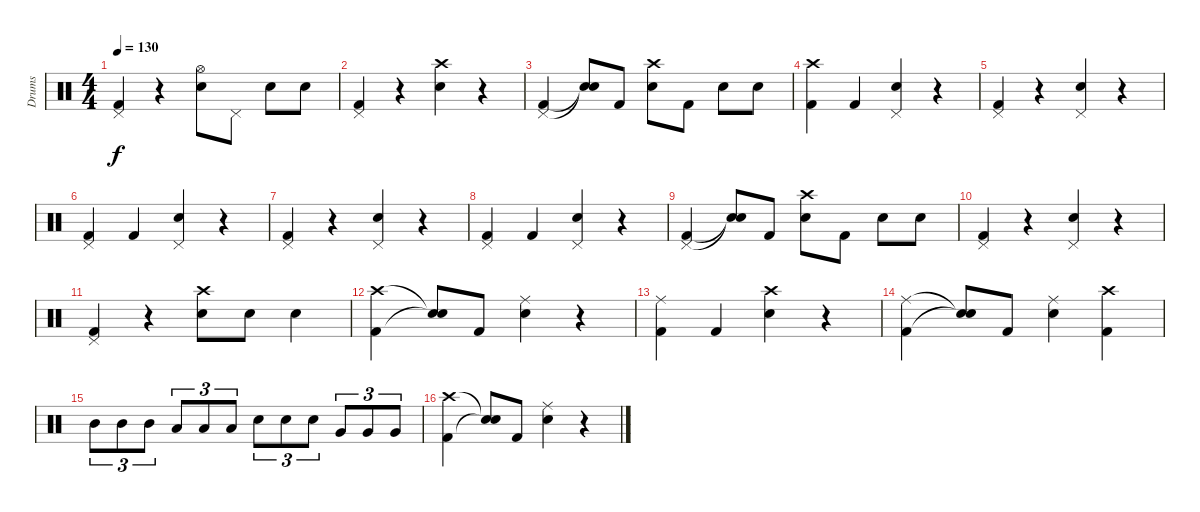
\track ("Drums" "Drums") {instrument percussion}
\staff {score}
\articulation defaults
\ts (4 4)
\tempo 130
\clef neutral
\ks c
("Pedal Hi-Hat (hit)" "Kick (hit) 2").4{dy f} r.4 ("Hi-Hat (open)" "Electric Snare (hit)").8 "Pedal Hi-Hat (hit)".8 "Electric Snare (hit)".8 "Electric Snare (hit)".8 |
("Pedal Hi-Hat (hit)" "Kick (hit) 2").4 r.4 ("Crash high (hit)" "Electric Snare (hit)").4 r.4 |
("Pedal Hi-Hat (hit)" "Kick (hit) 2").4 ("Snare (hit)"{t} "Snare (hit)"{t}).8 "Kick (hit) 2".8 ("Crash high (hit)" "Electric Snare (hit)").8 "Kick (hit) 2".8 "Electric Snare (hit)".8 "Electric Snare (hit)".8 |
("Crash high (hit)" "Kick (hit) 2").4 "Kick (hit) 2".4 ("Pedal Hi-Hat (hit)" "Electric Snare (hit)").4 r.4 |
("Pedal Hi-Hat (hit)" "Kick (hit) 2").4 r.4 ("Pedal Hi-Hat (hit)" "Electric Snare (hit)").4 r.4 |
("Pedal Hi-Hat (hit)" "Kick (hit) 2").4 "Kick (hit) 2".4 ("Pedal Hi-Hat (hit)" "Electric Snare (hit)").4 r.4 |
("Pedal Hi-Hat (hit)" "Kick (hit) 2").4 r.4 ("Pedal Hi-Hat (hit)" "Electric Snare (hit)").4 r.4 |
("Pedal Hi-Hat (hit)" "Kick (hit) 2").4 "Kick (hit) 2".4 ("Pedal Hi-Hat (hit)" "Electric Snare (hit)").4 r.4 |
("Pedal Hi-Hat (hit)" "Kick (hit) 2").4 ("Snare (hit)"{t} "Snare (hit)"{t}).8 "Kick (hit) 2".8 ("Crash high (hit)" "Electric Snare (hit)").8 "Kick (hit) 2".8 "Electric Snare (hit)".8 "Electric Snare (hit)".8 |
("Pedal Hi-Hat (hit)" "Kick (hit) 2").4 r.4 ("Pedal Hi-Hat (hit)" "Electric Snare (hit)").4 r.4 |
("Pedal Hi-Hat (hit)" "Kick (hit) 2").4 r.4 ("Crash high (hit)" "Electric Snare (hit)").8 "Electric Snare (hit)".8 "Electric Snare (hit)".4 |
("Crash high (hit)" "Kick (hit) 2").4 ("Snare (hit)"{t} "Snare (hit)"{t}).8 "Kick (hit) 2".8 ("Ride (middle)" "Electric Snare (hit)").4 r.4 |
("Ride (middle)" "Kick (hit) 2").4 "Kick (hit) 2".4 ("Crash high (hit)" "Electric Snare (hit)").4 r.4 |
("Ride (middle)" "Kick (hit) 2").4 ("Snare (hit)"{t} "Snare (hit)"{t}).8 "Kick (hit) 2".8 ("Ride (middle)" "Electric Snare (hit)").4 ("Crash high (hit)" "Kick (hit) 2").4 |
"Mid Tom (hit)".8{tu (3 2)} "Mid Tom (hit)".8{tu (3 2)} "Mid Tom (hit)".8{tu (3 2)} "Low Tom (hit)".8{tu (3 2)} "Low Tom (hit)".8{tu (3 2)} "Low Tom (hit)".8{tu (3 2)} "Electric Snare (hit)".8{tu (3 2)} "Electric Snare (hit)".8{tu (3 2)} "Electric Snare (hit)".8{tu (3 2)} "Very Low Tom (hit)".8{tu (3 2)} "Very Low Tom (hit)".8{tu (3 2)} "Very Low Tom (hit)".8{tu (3 2)} |
("Crash high (hit)" "Kick (hit) 2").4 ("Snare (hit)"{t} "Snare (hit)"{t}).8 "Kick (hit) 2".8 ("Ride (middle)" "Electric Snare (hit)").4 r.4
